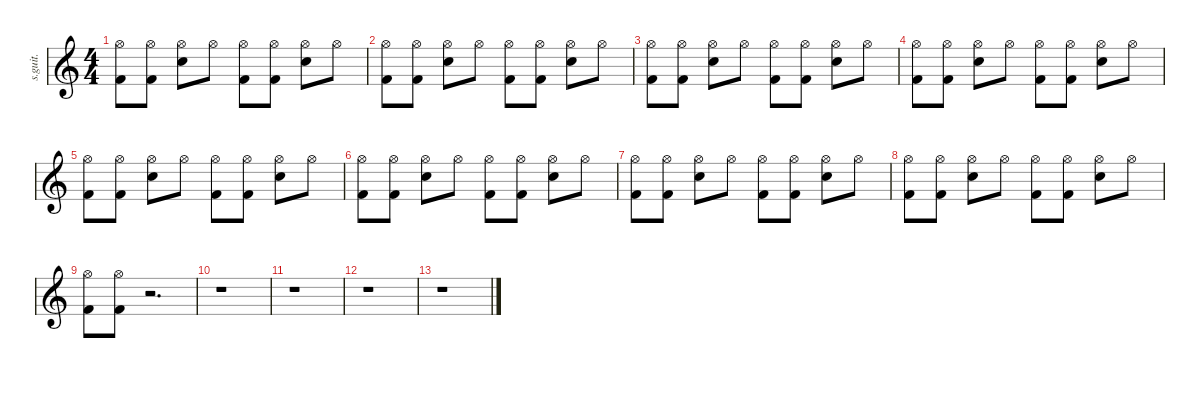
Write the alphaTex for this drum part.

\defaultSystemsLayout 4
\hideDynamics
\bracketExtendMode nobrackets
\track ("David Lovering" "s.guit.") {instrument percussion}
\staff {score}
\articulation defaults
\ts (4 4)
\tempo (81 hide)
\clef g2
\ks c
("Hi-Hat (open)" "Kick (hit) 2").8{lyrics (0 "") lyrics (1 "") lyrics (2 "") lyrics (3 "") lyrics (4 "") dy mf} ("Hi-Hat (open)" "Kick (hit) 2").8{lyrics (0 "") lyrics (1 "") lyrics (2 "") lyrics (3 "") lyrics (4 "")} ("Snare (hit) 2" "Hi-Hat (open)").8{lyrics (0 "") lyrics (1 "") lyrics (2 "") lyrics (3 "") lyrics (4 "")} "Hi-Hat (open)".8{lyrics (0 "") lyrics (1 "") lyrics (2 "") lyrics (3 "") lyrics (4 "")} ("Hi-Hat (open)" "Kick (hit) 2").8{lyrics (0 "") lyrics (1 "") lyrics (2 "") lyrics (3 "") lyrics (4 "")} ("Hi-Hat (open)" "Kick (hit) 2").8{lyrics (0 "") lyrics (1 "") lyrics (2 "") lyrics (3 "") lyrics (4 "")} ("Snare (hit) 2" "Hi-Hat (open)").8{lyrics (0 "") lyrics (1 "") lyrics (2 "") lyrics (3 "") lyrics (4 "")} "Hi-Hat (open)".8{lyrics (0 "") lyrics (1 "") lyrics (2 "") lyrics (3 "") lyrics (4 "")} |
("Hi-Hat (open)" "Kick (hit) 2").8{lyrics (0 "") lyrics (1 "") lyrics (2 "") lyrics (3 "") lyrics (4 "")} ("Hi-Hat (open)" "Kick (hit) 2").8{lyrics (0 "") lyrics (1 "") lyrics (2 "") lyrics (3 "") lyrics (4 "")} ("Snare (hit) 2" "Hi-Hat (open)").8{lyrics (0 "") lyrics (1 "") lyrics (2 "") lyrics (3 "") lyrics (4 "")} "Hi-Hat (open)".8{lyrics (0 "") lyrics (1 "") lyrics (2 "") lyrics (3 "") lyrics (4 "")} ("Hi-Hat (open)" "Kick (hit) 2").8{lyrics (0 "") lyrics (1 "") lyrics (2 "") lyrics (3 "") lyrics (4 "")} ("Hi-Hat (open)" "Kick (hit) 2").8{lyrics (0 "") lyrics (1 "") lyrics (2 "") lyrics (3 "") lyrics (4 "")} ("Snare (hit) 2" "Hi-Hat (open)").8{lyrics (0 "") lyrics (1 "") lyrics (2 "") lyrics (3 "") lyrics (4 "")} "Hi-Hat (open)".8{lyrics (0 "") lyrics (1 "") lyrics (2 "") lyrics (3 "") lyrics (4 "")} |
("Hi-Hat (open)" "Kick (hit) 2").8{lyrics (0 "") lyrics (1 "") lyrics (2 "") lyrics (3 "") lyrics (4 "")} ("Hi-Hat (open)" "Kick (hit) 2").8{lyrics (0 "") lyrics (1 "") lyrics (2 "") lyrics (3 "") lyrics (4 "")} ("Snare (hit) 2" "Hi-Hat (open)").8{lyrics (0 "") lyrics (1 "") lyrics (2 "") lyrics (3 "") lyrics (4 "")} "Hi-Hat (open)".8{lyrics (0 "") lyrics (1 "") lyrics (2 "") lyrics (3 "") lyrics (4 "")} ("Hi-Hat (open)" "Kick (hit) 2").8{lyrics (0 "") lyrics (1 "") lyrics (2 "") lyrics (3 "") lyrics (4 "")} ("Hi-Hat (open)" "Kick (hit) 2").8{lyrics (0 "") lyrics (1 "") lyrics (2 "") lyrics (3 "") lyrics (4 "")} ("Snare (hit) 2" "Hi-Hat (open)").8{lyrics (0 "") lyrics (1 "") lyrics (2 "") lyrics (3 "") lyrics (4 "")} "Hi-Hat (open)".8{lyrics (0 "") lyrics (1 "") lyrics (2 "") lyrics (3 "") lyrics (4 "")} |
("Hi-Hat (open)" "Kick (hit) 2").8{lyrics (0 "") lyrics (1 "") lyrics (2 "") lyrics (3 "") lyrics (4 "")} ("Hi-Hat (open)" "Kick (hit) 2").8{lyrics (0 "") lyrics (1 "") lyrics (2 "") lyrics (3 "") lyrics (4 "")} ("Snare (hit) 2" "Hi-Hat (open)").8{lyrics (0 "") lyrics (1 "") lyrics (2 "") lyrics (3 "") lyrics (4 "")} "Hi-Hat (open)".8{lyrics (0 "") lyrics (1 "") lyrics (2 "") lyrics (3 "") lyrics (4 "")} ("Hi-Hat (open)" "Kick (hit) 2").8{lyrics (0 "") lyrics (1 "") lyrics (2 "") lyrics (3 "") lyrics (4 "")} ("Hi-Hat (open)" "Kick (hit) 2").8{lyrics (0 "") lyrics (1 "") lyrics (2 "") lyrics (3 "") lyrics (4 "")} ("Snare (hit) 2" "Hi-Hat (open)").8{lyrics (0 "") lyrics (1 "") lyrics (2 "") lyrics (3 "") lyrics (4 "")} "Hi-Hat (open)".8{lyrics (0 "") lyrics (1 "") lyrics (2 "") lyrics (3 "") lyrics (4 "")} |
("Hi-Hat (open)" "Kick (hit) 2").8{lyrics (0 "") lyrics (1 "") lyrics (2 "") lyrics (3 "") lyrics (4 "")} ("Hi-Hat (open)" "Kick (hit) 2").8{lyrics (0 "") lyrics (1 "") lyrics (2 "") lyrics (3 "") lyrics (4 "")} ("Snare (hit) 2" "Hi-Hat (open)").8{lyrics (0 "") lyrics (1 "") lyrics (2 "") lyrics (3 "") lyrics (4 "")} "Hi-Hat (open)".8{lyrics (0 "") lyrics (1 "") lyrics (2 "") lyrics (3 "") lyrics (4 "")} ("Hi-Hat (open)" "Kick (hit) 2").8{lyrics (0 "") lyrics (1 "") lyrics (2 "") lyrics (3 "") lyrics (4 "")} ("Hi-Hat (open)" "Kick (hit) 2").8{lyrics (0 "") lyrics (1 "") lyrics (2 "") lyrics (3 "") lyrics (4 "")} ("Snare (hit) 2" "Hi-Hat (open)").8{lyrics (0 "") lyrics (1 "") lyrics (2 "") lyrics (3 "") lyrics (4 "")} "Hi-Hat (open)".8{lyrics (0 "") lyrics (1 "") lyrics (2 "") lyrics (3 "") lyrics (4 "")} |
("Hi-Hat (open)" "Kick (hit) 2").8{lyrics (0 "") lyrics (1 "") lyrics (2 "") lyrics (3 "") lyrics (4 "")} ("Hi-Hat (open)" "Kick (hit) 2").8{lyrics (0 "") lyrics (1 "") lyrics (2 "") lyrics (3 "") lyrics (4 "")} ("Snare (hit) 2" "Hi-Hat (open)").8{lyrics (0 "") lyrics (1 "") lyrics (2 "") lyrics (3 "") lyrics (4 "")} "Hi-Hat (open)".8{lyrics (0 "") lyrics (1 "") lyrics (2 "") lyrics (3 "") lyrics (4 "")} ("Hi-Hat (open)" "Kick (hit) 2").8{lyrics (0 "") lyrics (1 "") lyrics (2 "") lyrics (3 "") lyrics (4 "")} ("Hi-Hat (open)" "Kick (hit) 2").8{lyrics (0 "") lyrics (1 "") lyrics (2 "") lyrics (3 "") lyrics (4 "")} ("Snare (hit) 2" "Hi-Hat (open)").8{lyrics (0 "") lyrics (1 "") lyrics (2 "") lyrics (3 "") lyrics (4 "")} "Hi-Hat (open)".8{lyrics (0 "") lyrics (1 "") lyrics (2 "") lyrics (3 "") lyrics (4 "")} |
("Hi-Hat (open)" "Kick (hit) 2").8{lyrics (0 "") lyrics (1 "") lyrics (2 "") lyrics (3 "") lyrics (4 "")} ("Hi-Hat (open)" "Kick (hit) 2").8{lyrics (0 "") lyrics (1 "") lyrics (2 "") lyrics (3 "") lyrics (4 "")} ("Snare (hit) 2" "Hi-Hat (open)").8{lyrics (0 "") lyrics (1 "") lyrics (2 "") lyrics (3 "") lyrics (4 "")} "Hi-Hat (open)".8{lyrics (0 "") lyrics (1 "") lyrics (2 "") lyrics (3 "") lyrics (4 "")} ("Hi-Hat (open)" "Kick (hit) 2").8{lyrics (0 "") lyrics (1 "") lyrics (2 "") lyrics (3 "") lyrics (4 "")} ("Hi-Hat (open)" "Kick (hit) 2").8{lyrics (0 "") lyrics (1 "") lyrics (2 "") lyrics (3 "") lyrics (4 "")} ("Snare (hit) 2" "Hi-Hat (open)").8{lyrics (0 "") lyrics (1 "") lyrics (2 "") lyrics (3 "") lyrics (4 "")} "Hi-Hat (open)".8{lyrics (0 "") lyrics (1 "") lyrics (2 "") lyrics (3 "") lyrics (4 "")} |
("Hi-Hat (open)" "Kick (hit) 2").8{lyrics (0 "") lyrics (1 "") lyrics (2 "") lyrics (3 "") lyrics (4 "")} ("Hi-Hat (open)" "Kick (hit) 2").8{lyrics (0 "") lyrics (1 "") lyrics (2 "") lyrics (3 "") lyrics (4 "")} ("Snare (hit) 2" "Hi-Hat (open)").8{lyrics (0 "") lyrics (1 "") lyrics (2 "") lyrics (3 "") lyrics (4 "")} "Hi-Hat (open)".8{lyrics (0 "") lyrics (1 "") lyrics (2 "") lyrics (3 "") lyrics (4 "")} ("Hi-Hat (open)" "Kick (hit) 2").8{lyrics (0 "") lyrics (1 "") lyrics (2 "") lyrics (3 "") lyrics (4 "")} ("Hi-Hat (open)" "Kick (hit) 2").8{lyrics (0 "") lyrics (1 "") lyrics (2 "") lyrics (3 "") lyrics (4 "")} ("Snare (hit) 2" "Hi-Hat (open)").8{lyrics (0 "") lyrics (1 "") lyrics (2 "") lyrics (3 "") lyrics (4 "")} "Hi-Hat (open)".8{lyrics (0 "") lyrics (1 "") lyrics (2 "") lyrics (3 "") lyrics (4 "")} |
("Hi-Hat (open)" "Kick (hit) 2").8{lyrics (0 "") lyrics (1 "") lyrics (2 "") lyrics (3 "") lyrics (4 "")} ("Hi-Hat (open)" "Kick (hit) 2").8{lyrics (0 "") lyrics (1 "") lyrics (2 "") lyrics (3 "") lyrics (4 "")} r.2{d} |
r.1 |
r.1 |
r.1 |
r.1
